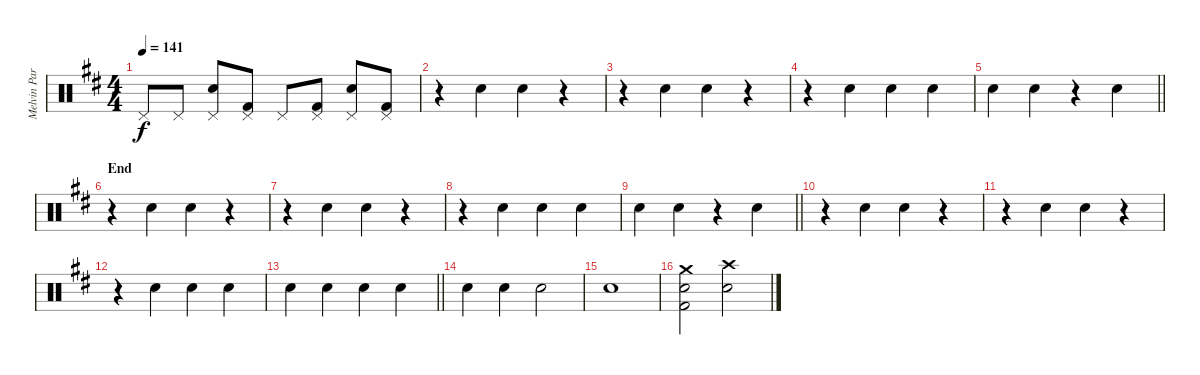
\track ("Melvin Parker - Drums " "Melvin Par") {instrument percussion}
\staff {score}
\articulation defaults
\ts (4 4)
\tempo 141
\clef neutral
\ks d "Pedal Hi-Hat (hit)".8{dy f} "Pedal Hi-Hat (hit)".8
("Pedal Hi-Hat (hit)" "Electric Snare (hit)").8 ("Pedal Hi-Hat (hit)" "Kick (hit) 2").8 "Pedal Hi-Hat (hit)".8 ("Pedal Hi-Hat (hit)" "Kick (hit) 2").8 ("Pedal Hi-Hat (hit)" "Electric Snare (hit)").8 ("Pedal Hi-Hat (hit)" "Kick (hit) 2").8 |
r.4 "Electric Snare (hit)".4 "Electric Snare (hit)".4 r.4 |
r.4 "Electric Snare (hit)".4 "Electric Snare (hit)".4 r.4 |
r.4 "Electric Snare (hit)".4 "Electric Snare (hit)".4 "Electric Snare (hit)".4 |
\barLineRight lightlight "Electric Snare (hit)".4 "Electric Snare (hit)".4
r.4 "Electric Snare (hit)".4 |
\section ("" "End")
r.4 "Electric Snare (hit)".4 "Electric Snare (hit)".4 r.4 |
r.4 "Electric Snare (hit)".4 "Electric Snare (hit)".4 r.4 |
r.4 "Electric Snare (hit)".4 "Electric Snare (hit)".4 "Electric Snare (hit)".4 |
\barLineRight lightlight "Electric Snare (hit)".4 "Electric Snare (hit)".4
r.4 "Electric Snare (hit)".4 |
r.4 "Electric Snare (hit)".4 "Electric Snare (hit)".4 r.4 |
r.4 "Electric Snare (hit)".4 "Electric Snare (hit)".4 r.4 |
r.4 "Electric Snare (hit)".4 "Electric Snare (hit)".4 "Electric Snare (hit)".4 |
\barLineRight lightlight "Electric Snare (hit)".4 "Electric Snare (hit)".4 "Electric Snare (hit)".4 "Electric Snare (hit)".4
|
"Electric Snare (hit)".4 "Electric Snare (hit)".4 "Electric Snare (hit)".2 |
"Electric Snare (hit)".1 |
("Crash medium (hit)" "Electric Snare (hit)" "Kick (hit) 2").2 ("Crash high (hit)" "Electric Snare (hit)").2
